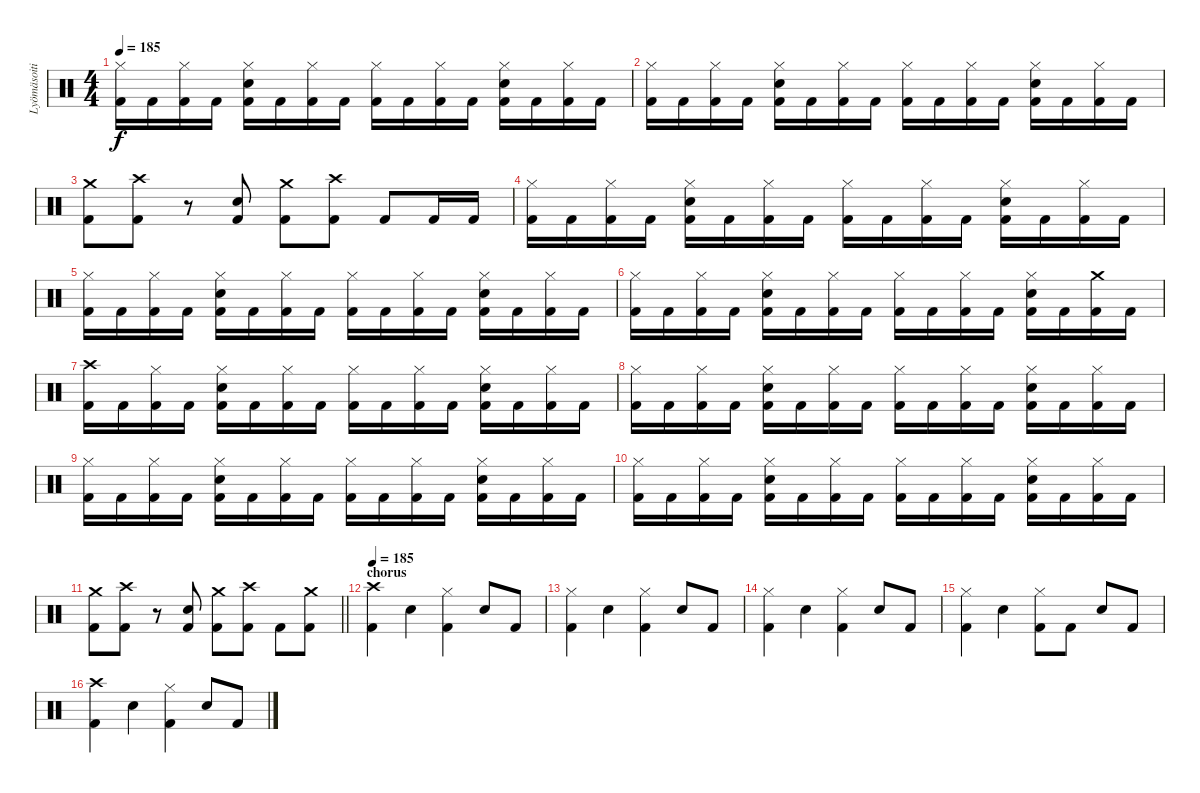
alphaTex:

\track ("Lyömäsoitin" "Lyömäsoiti") {instrument percussion}
\staff {score}
\articulation defaults
\ts (4 4)
\tempo 185
\clef neutral
\ks c
("Hi-Hat (closed)" "Kick (hit) 2").16{dy f} "Kick (hit) 2".16 ("Hi-Hat (closed)" "Kick (hit) 2").16 "Kick (hit) 2".16 ("Hi-Hat (closed)" "Electric Snare (hit)" "Kick (hit) 2").16 "Kick (hit) 2".16 ("Hi-Hat (closed)" "Kick (hit) 2").16 "Kick (hit) 2".16 ("Hi-Hat (closed)" "Kick (hit) 2").16 "Kick (hit) 2".16 ("Hi-Hat (closed)" "Kick (hit) 2").16 "Kick (hit) 2".16 ("Hi-Hat (closed)" "Electric Snare (hit)" "Kick (hit) 2").16 "Kick (hit) 2".16 ("Hi-Hat (closed)" "Kick (hit) 2").16 "Kick (hit) 2".16 |
("Hi-Hat (closed)" "Kick (hit) 2").16 "Kick (hit) 2".16 ("Hi-Hat (closed)" "Kick (hit) 2").16 "Kick (hit) 2".16 ("Hi-Hat (closed)" "Electric Snare (hit)" "Kick (hit) 2").16 "Kick (hit) 2".16 ("Hi-Hat (closed)" "Kick (hit) 2").16 "Kick (hit) 2".16 ("Hi-Hat (closed)" "Kick (hit) 2").16 "Kick (hit) 2".16 ("Hi-Hat (closed)" "Kick (hit) 2").16 "Kick (hit) 2".16 ("Hi-Hat (closed)" "Electric Snare (hit)" "Kick (hit) 2").16 "Kick (hit) 2".16 ("Hi-Hat (closed)" "Kick (hit) 2").16 "Kick (hit) 2".16 |
("Crash medium (hit)" "Kick (hit) 2").8 ("Crash high (hit)" "Kick (hit) 2").8 r.8 ("Electric Snare (hit)" "Kick (hit) 2").8 ("Crash medium (hit)" "Kick (hit) 2").8 ("Crash high (hit)" "Kick (hit) 2").8 "Kick (hit) 2".8 "Kick (hit) 2".16 "Kick (hit) 2".16 |
("Hi-Hat (closed)" "Kick (hit) 2").16 "Kick (hit) 2".16 ("Hi-Hat (closed)" "Kick (hit) 2").16 "Kick (hit) 2".16 ("Hi-Hat (closed)" "Electric Snare (hit)" "Kick (hit) 2").16 "Kick (hit) 2".16 ("Hi-Hat (closed)" "Kick (hit) 2").16 "Kick (hit) 2".16 ("Hi-Hat (closed)" "Kick (hit) 2").16 "Kick (hit) 2".16 ("Hi-Hat (closed)" "Kick (hit) 2").16 "Kick (hit) 2".16 ("Hi-Hat (closed)" "Electric Snare (hit)" "Kick (hit) 2").16 "Kick (hit) 2".16 ("Hi-Hat (closed)" "Kick (hit) 2").16 "Kick (hit) 2".16 |
("Hi-Hat (closed)" "Kick (hit) 2").16 "Kick (hit) 2".16 ("Hi-Hat (closed)" "Kick (hit) 2").16 "Kick (hit) 2".16 ("Hi-Hat (closed)" "Electric Snare (hit)" "Kick (hit) 2").16 "Kick (hit) 2".16 ("Hi-Hat (closed)" "Kick (hit) 2").16 "Kick (hit) 2".16 ("Hi-Hat (closed)" "Kick (hit) 2").16 "Kick (hit) 2".16 ("Hi-Hat (closed)" "Kick (hit) 2").16 "Kick (hit) 2".16 ("Hi-Hat (closed)" "Electric Snare (hit)" "Kick (hit) 2").16 "Kick (hit) 2".16 ("Hi-Hat (closed)" "Kick (hit) 2").16 "Kick (hit) 2".16 |
("Hi-Hat (closed)" "Kick (hit) 2").16 "Kick (hit) 2".16 ("Hi-Hat (closed)" "Kick (hit) 2").16 "Kick (hit) 2".16 ("Hi-Hat (closed)" "Electric Snare (hit)" "Kick (hit) 2").16 "Kick (hit) 2".16 ("Hi-Hat (closed)" "Kick (hit) 2").16 "Kick (hit) 2".16 ("Hi-Hat (closed)" "Kick (hit) 2").16 "Kick (hit) 2".16 ("Hi-Hat (closed)" "Kick (hit) 2").16 "Kick (hit) 2".16 ("Hi-Hat (closed)" "Electric Snare (hit)" "Kick (hit) 2").16 "Kick (hit) 2".16 ("Crash medium (hit)" "Kick (hit) 2").16 "Kick (hit) 2".16 |
("Crash high (hit)" "Kick (hit) 2").16 "Kick (hit) 2".16 ("Hi-Hat (closed)" "Kick (hit) 2").16 "Kick (hit) 2".16 ("Hi-Hat (closed)" "Electric Snare (hit)" "Kick (hit) 2").16 "Kick (hit) 2".16 ("Hi-Hat (closed)" "Kick (hit) 2").16 "Kick (hit) 2".16 ("Hi-Hat (closed)" "Kick (hit) 2").16 "Kick (hit) 2".16 ("Hi-Hat (closed)" "Kick (hit) 2").16 "Kick (hit) 2".16 ("Hi-Hat (closed)" "Electric Snare (hit)" "Kick (hit) 2").16 "Kick (hit) 2".16 ("Hi-Hat (closed)" "Kick (hit) 2").16 "Kick (hit) 2".16 |
("Hi-Hat (closed)" "Kick (hit) 2").16 "Kick (hit) 2".16 ("Hi-Hat (closed)" "Kick (hit) 2").16 "Kick (hit) 2".16 ("Hi-Hat (closed)" "Electric Snare (hit)" "Kick (hit) 2").16 "Kick (hit) 2".16 ("Hi-Hat (closed)" "Kick (hit) 2").16 "Kick (hit) 2".16 ("Hi-Hat (closed)" "Kick (hit) 2").16 "Kick (hit) 2".16 ("Hi-Hat (closed)" "Kick (hit) 2").16 "Kick (hit) 2".16 ("Hi-Hat (closed)" "Electric Snare (hit)" "Kick (hit) 2").16 "Kick (hit) 2".16 ("Hi-Hat (closed)" "Kick (hit) 2").16 "Kick (hit) 2".16 |
("Hi-Hat (closed)" "Kick (hit) 2").16 "Kick (hit) 2".16 ("Hi-Hat (closed)" "Kick (hit) 2").16 "Kick (hit) 2".16 ("Hi-Hat (closed)" "Electric Snare (hit)" "Kick (hit) 2").16 "Kick (hit) 2".16 ("Hi-Hat (closed)" "Kick (hit) 2").16 "Kick (hit) 2".16 ("Hi-Hat (closed)" "Kick (hit) 2").16 "Kick (hit) 2".16 ("Hi-Hat (closed)" "Kick (hit) 2").16 "Kick (hit) 2".16 ("Hi-Hat (closed)" "Electric Snare (hit)" "Kick (hit) 2").16 "Kick (hit) 2".16 ("Hi-Hat (closed)" "Kick (hit) 2").16 "Kick (hit) 2".16 |
("Hi-Hat (closed)" "Kick (hit) 2").16 "Kick (hit) 2".16 ("Hi-Hat (closed)" "Kick (hit) 2").16 "Kick (hit) 2".16 ("Hi-Hat (closed)" "Electric Snare (hit)" "Kick (hit) 2").16 "Kick (hit) 2".16 ("Hi-Hat (closed)" "Kick (hit) 2").16 "Kick (hit) 2".16 ("Hi-Hat (closed)" "Kick (hit) 2").16 "Kick (hit) 2".16 ("Hi-Hat (closed)" "Kick (hit) 2").16 "Kick (hit) 2".16 ("Hi-Hat (closed)" "Electric Snare (hit)" "Kick (hit) 2").16 "Kick (hit) 2".16 ("Hi-Hat (closed)" "Kick (hit) 2").16 "Kick (hit) 2".16 |
\barLineRight lightlight
("Crash medium (hit)" "Kick (hit) 2").8 ("Crash high (hit)" "Kick (hit) 2").8 r.8 ("Electric Snare (hit)" "Kick (hit) 2").8 ("Crash medium (hit)" "Kick (hit) 2").8 ("Crash high (hit)" "Kick (hit) 2").8 "Kick (hit) 2".8 ("Crash medium (hit)" "Kick (hit) 2").8 |
\section ("" "chorus")
\tempo 185
("Crash high (hit)" "Kick (hit) 2").4 "Electric Snare (hit)".4 ("Hi-Hat (closed)" "Kick (hit) 2").4 "Electric Snare (hit)".8 "Kick (hit) 2".8 |
("Hi-Hat (closed)" "Kick (hit) 2").4 "Electric Snare (hit)".4 ("Hi-Hat (closed)" "Kick (hit) 2").4 "Electric Snare (hit)".8 "Kick (hit) 2".8 |
("Hi-Hat (closed)" "Kick (hit) 2").4 "Electric Snare (hit)".4 ("Hi-Hat (closed)" "Kick (hit) 2").4 "Electric Snare (hit)".8 "Kick (hit) 2".8 |
("Hi-Hat (closed)" "Kick (hit) 2").4 "Electric Snare (hit)".4 ("Hi-Hat (closed)" "Kick (hit) 2").8 "Kick (hit) 2".8 "Electric Snare (hit)".8 "Kick (hit) 2".8 |
("Crash high (hit)" "Kick (hit) 2").4 "Electric Snare (hit)".4 ("Hi-Hat (closed)" "Kick (hit) 2").4 "Electric Snare (hit)".8 "Kick (hit) 2".8
